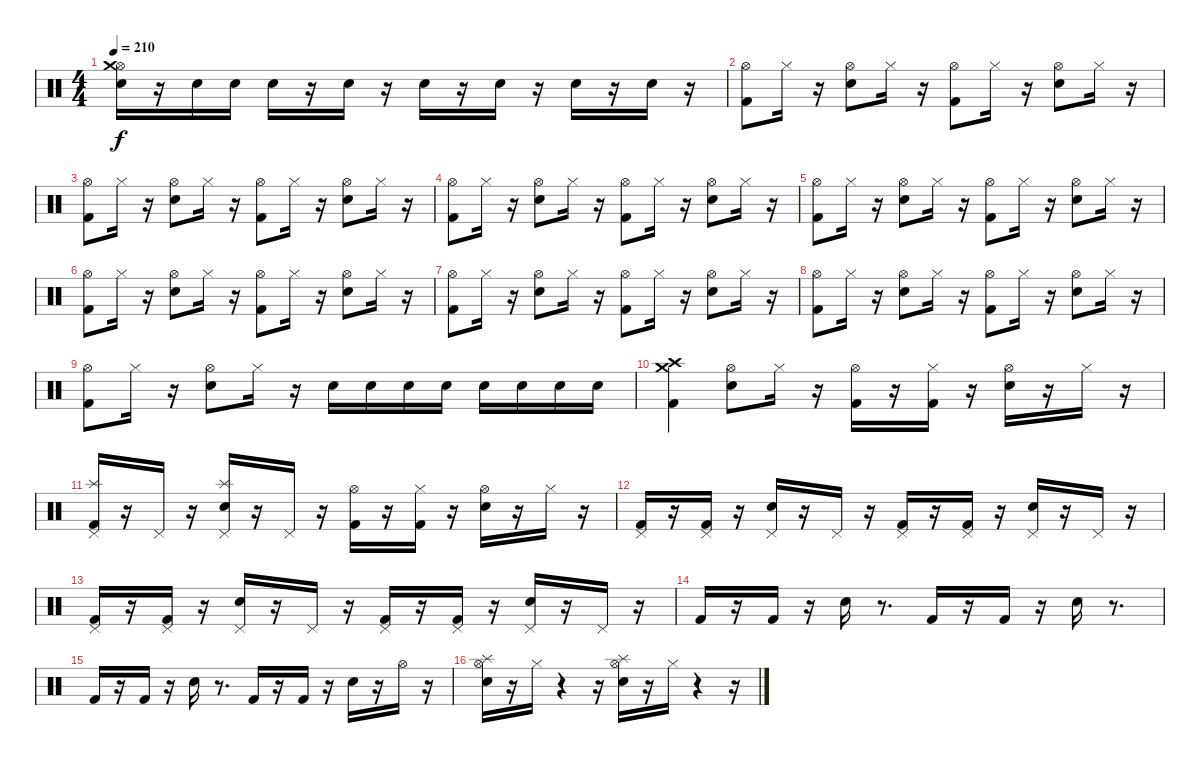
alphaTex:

\track "" {instrument percussion}
\staff {score}
\articulation defaults
\ts (4 4)
\tempo 210
\clef neutral
\ks c
("Hi-Hat (open)" "Crash medium (hit)" "Electric Snare (hit)").16{dy f} r.16 "Electric Snare (hit)".16 "Electric Snare (hit)".16 "Electric Snare (hit)".16 r.16 "Electric Snare (hit)".16 r.16 "Snare (hit) 2".16 r.16 "Snare (hit) 2".16 r.16 "Snare (hit) 2".16 r.16 "Snare (hit) 2".16 r.16 |
("Hi-Hat (open)" "Kick (hit) 2").8 "Hi-Hat (closed)".16 r.16 ("Hi-Hat (open)" "Snare (hit) 2").8 "Hi-Hat (closed)".16 r.16 ("Hi-Hat (open)" "Kick (hit) 2").8 "Hi-Hat (closed)".16 r.16 ("Hi-Hat (open)" "Snare (hit) 2").8 "Hi-Hat (closed)".16 r.16 |
("Hi-Hat (open)" "Kick (hit) 2").8 "Hi-Hat (closed)".16 r.16 ("Hi-Hat (open)" "Snare (hit) 2").8 "Hi-Hat (closed)".16 r.16 ("Hi-Hat (open)" "Kick (hit) 2").8 "Hi-Hat (closed)".16 r.16 ("Hi-Hat (open)" "Snare (hit) 2").8 "Hi-Hat (closed)".16 r.16 |
("Hi-Hat (open)" "Kick (hit) 2").8 "Hi-Hat (closed)".16 r.16 ("Hi-Hat (open)" "Snare (hit) 2").8 "Hi-Hat (closed)".16 r.16 ("Hi-Hat (open)" "Kick (hit) 2").8 "Hi-Hat (closed)".16 r.16 ("Hi-Hat (open)" "Snare (hit) 2").8 "Hi-Hat (closed)".16 r.16 |
("Hi-Hat (open)" "Kick (hit) 2").8 "Hi-Hat (closed)".16 r.16 ("Hi-Hat (open)" "Snare (hit) 2").8 "Hi-Hat (closed)".16 r.16 ("Hi-Hat (open)" "Kick (hit) 2").8 "Hi-Hat (closed)".16 r.16 ("Hi-Hat (open)" "Snare (hit) 2").8 "Hi-Hat (closed)".16 r.16 |
("Hi-Hat (open)" "Kick (hit) 2").8 "Hi-Hat (closed)".16 r.16 ("Hi-Hat (open)" "Snare (hit) 2").8 "Hi-Hat (closed)".16 r.16 ("Hi-Hat (open)" "Kick (hit) 2").8 "Hi-Hat (closed)".16 r.16 ("Hi-Hat (open)" "Snare (hit) 2").8 "Hi-Hat (closed)".16 r.16 |
("Hi-Hat (open)" "Kick (hit) 2").8 "Hi-Hat (closed)".16 r.16 ("Hi-Hat (open)" "Snare (hit) 2").8 "Hi-Hat (closed)".16 r.16 ("Hi-Hat (open)" "Kick (hit) 2").8 "Hi-Hat (closed)".16 r.16 ("Hi-Hat (open)" "Snare (hit) 2").8 "Hi-Hat (closed)".16 r.16 |
("Hi-Hat (open)" "Kick (hit) 2").8 "Hi-Hat (closed)".16 r.16 ("Hi-Hat (open)" "Snare (hit) 2").8 "Hi-Hat (closed)".16 r.16 ("Hi-Hat (open)" "Kick (hit) 2").8 "Hi-Hat (closed)".16 r.16 ("Hi-Hat (open)" "Snare (hit) 2").8 "Hi-Hat (closed)".16 r.16 |
("Hi-Hat (open)" "Kick (hit) 2").8 "Hi-Hat (closed)".16 r.16 ("Hi-Hat (open)" "Snare (hit) 2").8 "Hi-Hat (closed)".16 r.16 "Snare (hit) 2".16 "Snare (hit) 2".16 "Snare (hit) 2".16 "Snare (hit) 2".16 "Snare (hit) 2".16 "Snare (hit) 2".16 "Snare (hit) 2".16 "Snare (hit) 2".16 |
("Crash medium (hit)" "Crash high (hit)" "Kick (hit) 2").4 ("Hi-Hat (open)" "Snare (hit) 2").8 "Hi-Hat (closed)".16 r.16 ("Hi-Hat (open)" "Kick (hit) 2").16 r.16 ("Hi-Hat (closed)" "Kick (hit) 2").16 r.16 ("Hi-Hat (open)" "Snare (hit) 2").16 r.16 "Hi-Hat (closed)".16 r.16 |
("Splash (hit)" "Pedal Hi-Hat (hit)" "Kick (hit) 2").16 r.16 "Pedal Hi-Hat (hit)".16 r.16 ("Splash (hit)" "Pedal Hi-Hat (hit)" "Snare (hit) 2").16 r.16 "Pedal Hi-Hat (hit)".16 r.16 ("Hi-Hat (open)" "Kick (hit) 2").16 r.16 ("Hi-Hat (closed)" "Kick (hit) 2").16 r.16 ("Hi-Hat (open)" "Snare (hit) 2").16 r.16 "Hi-Hat (closed)".16 r.16 |
("Pedal Hi-Hat (hit)" "Kick (hit) 2").16 r.16 ("Pedal Hi-Hat (hit)" "Kick (hit) 2").16 r.16 ("Pedal Hi-Hat (hit)" "Snare (hit) 2").16 r.16 "Pedal Hi-Hat (hit)".16 r.16 ("Pedal Hi-Hat (hit)" "Kick (hit) 2").16 r.16 ("Pedal Hi-Hat (hit)" "Kick (hit) 2").16 r.16 ("Pedal Hi-Hat (hit)" "Snare (hit) 2").16 r.16 "Pedal Hi-Hat (hit)".16 r.16 |
("Pedal Hi-Hat (hit)" "Kick (hit) 2").16 r.16 ("Pedal Hi-Hat (hit)" "Kick (hit) 2").16 r.16 ("Pedal Hi-Hat (hit)" "Snare (hit) 2").16 r.16 "Pedal Hi-Hat (hit)".16 r.16 ("Pedal Hi-Hat (hit)" "Kick (hit) 2").16 r.16 ("Pedal Hi-Hat (hit)" "Kick (hit) 2").16 r.16 ("Pedal Hi-Hat (hit)" "Snare (hit) 2").16 r.16 "Pedal Hi-Hat (hit)".16 r.16 |
"Kick (hit) 2".16 r.16 "Kick (hit) 2".16 r.16 "Snare (hit) 2".16 r.8{d} "Kick (hit) 2".16 r.16 "Kick (hit) 2".16 r.16 "Snare (hit) 2".16 r.8{d} |
"Kick (hit) 2".16 r.16 "Kick (hit) 2".16 r.16 "Snare (hit) 2".16 r.8{d} "Kick (hit) 2".16 r.16 "Kick (hit) 2".16 r.16 "Snare (hit) 2".16 r.16 "Hi-Hat (open)".16 r.16 |
("Hi-Hat (open)" "Splash (hit)" "Electric Snare (hit)").16 r.16 "Hi-Hat (closed)".16 r.4 r.16 ("Hi-Hat (open)" "Splash (hit)" "Electric Snare (hit)").16 r.16 "Hi-Hat (closed)".16 r.4 r.16
